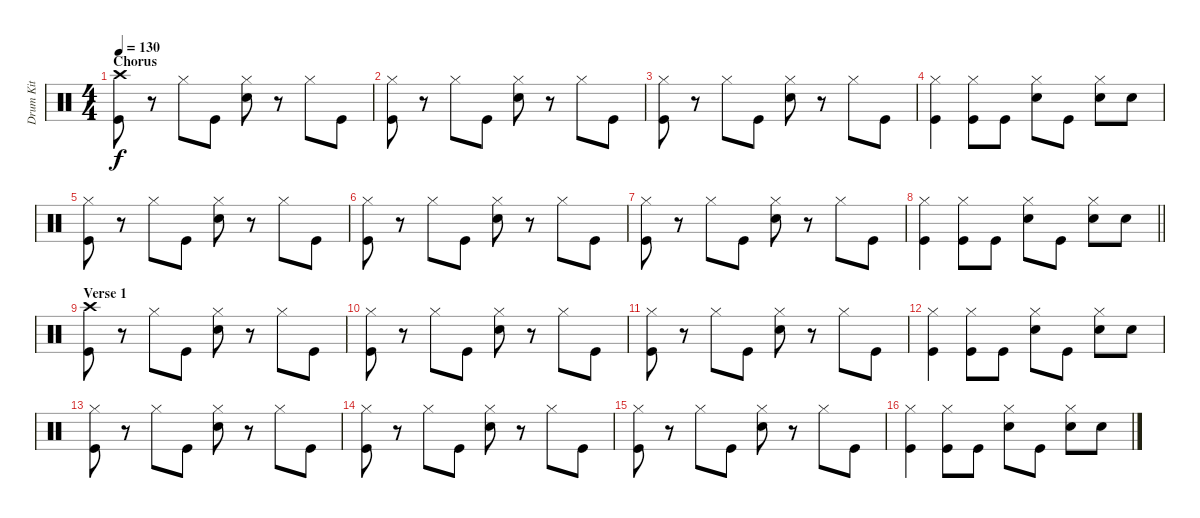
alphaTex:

\track ("Drum Kit" "Drum Kit") {instrument percussion}
\staff {score}
\articulation defaults
\ts (4 4)
\section ("" "Chorus")
\tempo 130
\clef neutral
\ks c
("Crash high (hit)" "Kick (hit)").8{dy f} r.8 "Hi-Hat (closed)".8 "Kick (hit)".8 ("Hi-Hat (closed)" "Snare (hit) 2").8 r.8 "Hi-Hat (closed)".8 "Kick (hit)".8 |
("Hi-Hat (closed)" "Kick (hit)").8 r.8 "Hi-Hat (closed)".8 "Kick (hit)".8 ("Hi-Hat (closed)" "Snare (hit) 2").8 r.8 "Hi-Hat (closed)".8 "Kick (hit)".8 |
("Hi-Hat (closed)" "Kick (hit)").8 r.8 "Hi-Hat (closed)".8 "Kick (hit)".8 ("Hi-Hat (closed)" "Snare (hit) 2").8 r.8 "Hi-Hat (closed)".8 "Kick (hit)".8 |
("Hi-Hat (closed)" "Kick (hit)").4 ("Hi-Hat (closed)" "Kick (hit)").8 "Kick (hit)".8 ("Hi-Hat (closed)" "Snare (hit) 2").8 "Kick (hit)".8 ("Hi-Hat (closed)" "Snare (hit) 2").8 "Snare (hit) 2".8 |
("Hi-Hat (closed)" "Kick (hit)").8 r.8 "Hi-Hat (closed)".8 "Kick (hit)".8 ("Hi-Hat (closed)" "Snare (hit) 2").8 r.8 "Hi-Hat (closed)".8 "Kick (hit)".8 |
("Hi-Hat (closed)" "Kick (hit)").8 r.8 "Hi-Hat (closed)".8 "Kick (hit)".8 ("Hi-Hat (closed)" "Snare (hit) 2").8 r.8 "Hi-Hat (closed)".8 "Kick (hit)".8 |
("Hi-Hat (closed)" "Kick (hit)").8 r.8 "Hi-Hat (closed)".8 "Kick (hit)".8 ("Hi-Hat (closed)" "Snare (hit) 2").8 r.8 "Hi-Hat (closed)".8 "Kick (hit)".8 |
\barLineRight lightlight
("Hi-Hat (closed)" "Kick (hit)").4 ("Hi-Hat (closed)" "Kick (hit)").8 "Kick (hit)".8 ("Hi-Hat (closed)" "Snare (hit) 2").8 "Kick (hit)".8 ("Hi-Hat (closed)" "Snare (hit) 2").8 "Snare (hit) 2".8 |
\section ("" "Verse 1")
("Crash high (hit)" "Kick (hit)").8 r.8 "Hi-Hat (closed)".8 "Kick (hit)".8 ("Hi-Hat (closed)" "Snare (hit) 2").8 r.8 "Hi-Hat (closed)".8 "Kick (hit)".8 |
("Hi-Hat (closed)" "Kick (hit)").8 r.8 "Hi-Hat (closed)".8 "Kick (hit)".8 ("Hi-Hat (closed)" "Snare (hit) 2").8 r.8 "Hi-Hat (closed)".8 "Kick (hit)".8 |
("Hi-Hat (closed)" "Kick (hit)").8 r.8 "Hi-Hat (closed)".8 "Kick (hit)".8 ("Hi-Hat (closed)" "Snare (hit) 2").8 r.8 "Hi-Hat (closed)".8 "Kick (hit)".8 |
("Hi-Hat (closed)" "Kick (hit)").4 ("Hi-Hat (closed)" "Kick (hit)").8 "Kick (hit)".8 ("Hi-Hat (closed)" "Snare (hit) 2").8 "Kick (hit)".8 ("Hi-Hat (closed)" "Snare (hit) 2").8 "Snare (hit) 2".8 |
("Hi-Hat (closed)" "Kick (hit)").8 r.8 "Hi-Hat (closed)".8 "Kick (hit)".8 ("Hi-Hat (closed)" "Snare (hit) 2").8 r.8 "Hi-Hat (closed)".8 "Kick (hit)".8 |
("Hi-Hat (closed)" "Kick (hit)").8 r.8 "Hi-Hat (closed)".8 "Kick (hit)".8 ("Hi-Hat (closed)" "Snare (hit) 2").8 r.8 "Hi-Hat (closed)".8 "Kick (hit)".8 |
("Hi-Hat (closed)" "Kick (hit)").8 r.8 "Hi-Hat (closed)".8 "Kick (hit)".8 ("Hi-Hat (closed)" "Snare (hit) 2").8 r.8 "Hi-Hat (closed)".8 "Kick (hit)".8 |
("Hi-Hat (closed)" "Kick (hit)").4 ("Hi-Hat (closed)" "Kick (hit)").8 "Kick (hit)".8 ("Hi-Hat (closed)" "Snare (hit) 2").8 "Kick (hit)".8 ("Hi-Hat (closed)" "Snare (hit) 2").8 "Snare (hit) 2".8
